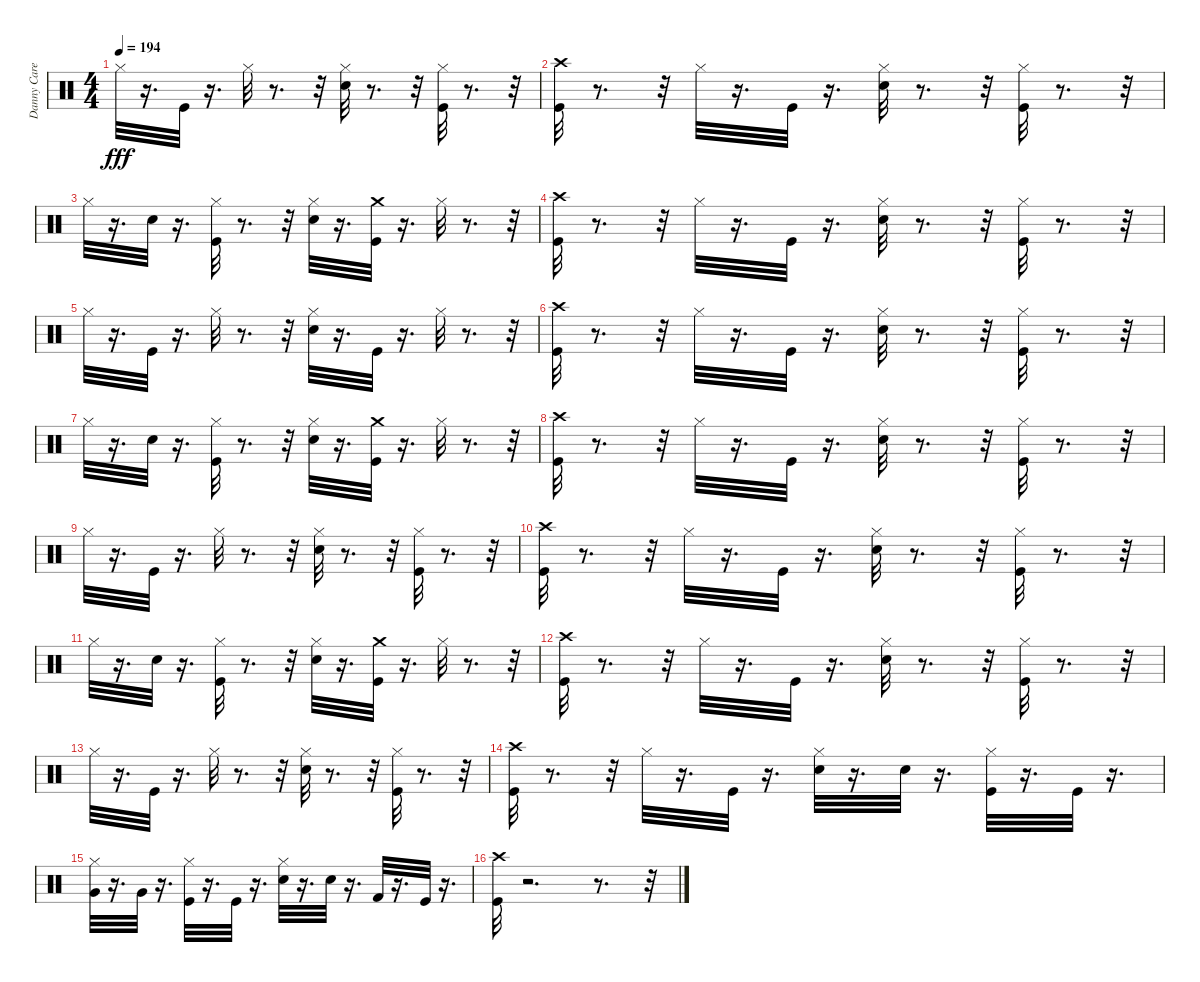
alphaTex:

\track ("Danny Carey" "Danny Care") {instrument percussion}
\staff {score}
\articulation defaults
\ts (4 4)
\tempo 194
\clef neutral
\ks c "Hi-Hat (closed)".32{dy fff}
r.16{d} "Kick (hit)".32 r.16{d} "Hi-Hat (closed)".32 r.8{d} r.32 ("Hi-Hat (closed)" "Snare (hit) 2").32 r.8{d} r.32 ("Hi-Hat (closed)" "Kick (hit)").32 r.8{d} r.32 |
("Kick (hit)" "Crash high (hit)").32 r.8{d} r.32 "Hi-Hat (closed)".32 r.16{d} "Kick (hit)".32 r.16{d} ("Snare (hit) 2" "Hi-Hat (closed)").32 r.8{d} r.32 ("Kick (hit)" "Hi-Hat (closed)").32 r.8{d} r.32 |
"Hi-Hat (closed)".32 r.16{d} "Snare (hit) 2".32 r.16{d} ("Kick (hit)" "Hi-Hat (closed)").32 r.8{d} r.32 ("Snare (hit) 2" "Hi-Hat (closed)").32 r.16{d} ("Kick (hit)" "Crash medium (hit)").32 r.16{d} "Hi-Hat (closed)".32 r.8{d} r.32 |
("Crash high (hit)" "Kick (hit)").32 r.8{d} r.32 "Hi-Hat (closed)".32 r.16{d} "Kick (hit)".32 r.16{d} ("Hi-Hat (closed)" "Snare (hit) 2").32 r.8{d} r.32 ("Hi-Hat (closed)" "Kick (hit)").32 r.8{d} r.32 |
"Hi-Hat (closed)".32 r.16{d} "Kick (hit)".32 r.16{d} "Hi-Hat (closed)".32 r.8{d} r.32 ("Hi-Hat (closed)" "Snare (hit) 2").32 r.16{d} "Kick (hit)".32 r.16{d} "Hi-Hat (closed)".32 r.8{d} r.32 |
("Kick (hit)" "Crash high (hit)").32 r.8{d} r.32 "Hi-Hat (closed)".32 r.16{d} "Kick (hit)".32 r.16{d} ("Snare (hit) 2" "Hi-Hat (closed)").32 r.8{d} r.32 ("Kick (hit)" "Hi-Hat (closed)").32 r.8{d} r.32 |
"Hi-Hat (closed)".32 r.16{d} "Snare (hit) 2".32 r.16{d} ("Kick (hit)" "Hi-Hat (closed)").32 r.8{d} r.32 ("Snare (hit) 2" "Hi-Hat (closed)").32 r.16{d} ("Kick (hit)" "Crash medium (hit)").32 r.16{d} "Hi-Hat (closed)".32 r.8{d} r.32 |
("Crash high (hit)" "Kick (hit)").32 r.8{d} r.32 "Hi-Hat (closed)".32 r.16{d} "Kick (hit)".32 r.16{d} ("Hi-Hat (closed)" "Snare (hit) 2").32 r.8{d} r.32 ("Hi-Hat (closed)" "Kick (hit)").32 r.8{d} r.32 |
"Hi-Hat (closed)".32 r.16{d} "Kick (hit)".32 r.16{d} "Hi-Hat (closed)".32 r.8{d} r.32 ("Hi-Hat (closed)" "Snare (hit) 2").32 r.8{d} r.32 ("Hi-Hat (closed)" "Kick (hit)").32 r.8{d} r.32 |
("Kick (hit)" "Crash high (hit)").32 r.8{d} r.32 "Hi-Hat (closed)".32 r.16{d} "Kick (hit)".32 r.16{d} ("Snare (hit) 2" "Hi-Hat (closed)").32 r.8{d} r.32 ("Kick (hit)" "Hi-Hat (closed)").32 r.8{d} r.32 |
"Hi-Hat (closed)".32 r.16{d} "Snare (hit) 2".32 r.16{d} ("Kick (hit)" "Hi-Hat (closed)").32 r.8{d} r.32 ("Snare (hit) 2" "Hi-Hat (closed)").32 r.16{d} ("Kick (hit)" "Crash medium (hit)").32 r.16{d} "Hi-Hat (closed)".32 r.8{d} r.32 |
("Crash high (hit)" "Kick (hit)").32 r.8{d} r.32 "Hi-Hat (closed)".32 r.16{d} "Kick (hit)".32 r.16{d} ("Hi-Hat (closed)" "Snare (hit) 2").32 r.8{d} r.32 ("Hi-Hat (closed)" "Kick (hit)").32 r.8{d} r.32 |
"Hi-Hat (closed)".32 r.16{d} "Kick (hit)".32 r.16{d} "Hi-Hat (closed)".32 r.8{d} r.32 ("Hi-Hat (closed)" "Snare (hit) 2").32 r.8{d} r.32 ("Hi-Hat (closed)" "Kick (hit)").32 r.8{d} r.32 |
("Kick (hit)" "Crash high (hit)").32 r.8{d} r.32 "Hi-Hat (closed)".32 r.16{d} "Kick (hit)".32 r.16{d} ("Snare (hit) 2" "Hi-Hat (closed)").32 r.16{d} "Snare (hit) 2".32 r.16{d} ("Kick (hit)" "Hi-Hat (closed)").32 r.16{d} "Kick (hit)".32 r.16{d} |
("Very Low Tom (hit)" "Hi-Hat (closed)").32 r.16{d} "Very Low Tom (hit)".32 r.16{d} ("Hi-Hat (closed)" "Kick (hit)").32 r.16{d} "Kick (hit)".32 r.16{d} ("Hi-Hat (closed)" "Snare (hit) 2").32 r.16{d} "Snare (hit) 2".32 r.16{d} "Kick (hit) 2".32 r.16{d} "Kick (hit)".32 r.16{d} |
("Crash high (hit)" "Kick (hit)").32 r.2{d} r.8{d} r.32
